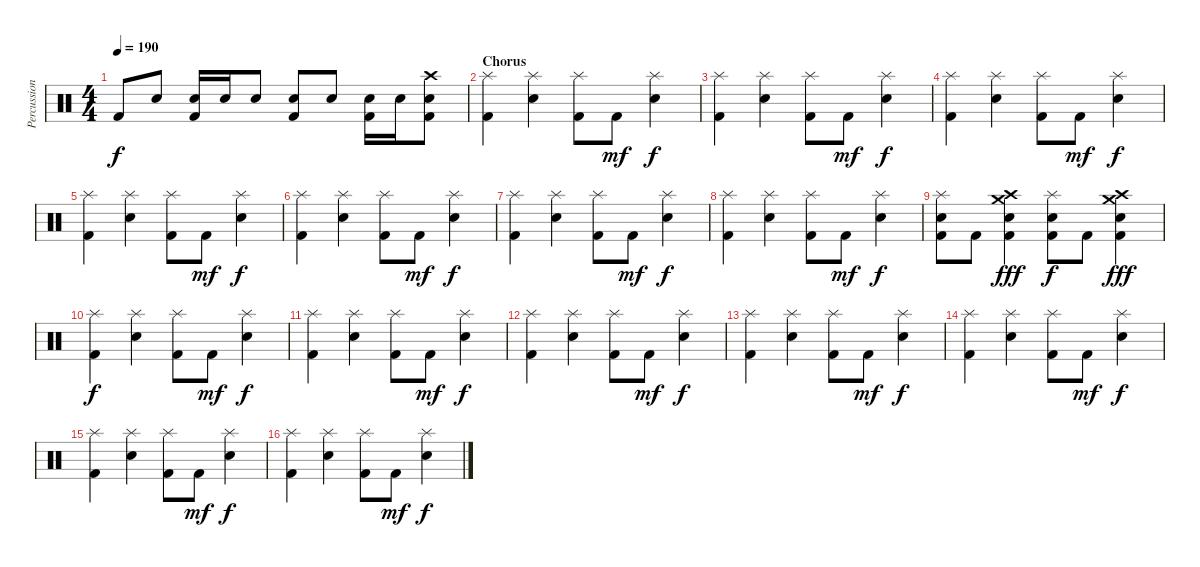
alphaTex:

\track ("Percussion" "Percussion") {instrument percussion}
\staff {score}
\articulation defaults
\ts (4 4)
\tempo 190
\clef neutral
\ks c "Kick (hit) 2".8{dy f} "Electric Snare (hit)".8
("Electric Snare (hit)" "Kick (hit) 2").16 "Electric Snare (hit)".16 "Electric Snare (hit)".8 ("Electric Snare (hit)" "Kick (hit) 2").8 "Electric Snare (hit)".8 ("Electric Snare (hit)" "Kick (hit) 2").16 "Electric Snare (hit)".16 ("Crash high (hit)" "Electric Snare (hit)" "Kick (hit) 2").8 |
\section ("" "Chorus")
("Splash (hit)" "Kick (hit) 2").4 ("Splash (hit)" "Electric Snare (hit)").4 ("Splash (hit)" "Kick (hit) 2").8 "Kick (hit) 2".8{dy mf} ("Splash (hit)" "Electric Snare (hit)").4{dy f} |
("Splash (hit)" "Kick (hit) 2").4 ("Splash (hit)" "Electric Snare (hit)").4 ("Splash (hit)" "Kick (hit) 2").8 "Kick (hit) 2".8{dy mf} ("Splash (hit)" "Electric Snare (hit)").4{dy f} |
("Splash (hit)" "Kick (hit) 2").4 ("Splash (hit)" "Electric Snare (hit)").4 ("Splash (hit)" "Kick (hit) 2").8 "Kick (hit) 2".8{dy mf} ("Splash (hit)" "Electric Snare (hit)").4{dy f} |
("Splash (hit)" "Kick (hit) 2").4 ("Splash (hit)" "Electric Snare (hit)").4 ("Splash (hit)" "Kick (hit) 2").8 "Kick (hit) 2".8{dy mf} ("Splash (hit)" "Electric Snare (hit)").4{dy f} |
("Splash (hit)" "Kick (hit) 2").4 ("Splash (hit)" "Electric Snare (hit)").4 ("Splash (hit)" "Kick (hit) 2").8 "Kick (hit) 2".8{dy mf} ("Splash (hit)" "Electric Snare (hit)").4{dy f} |
("Splash (hit)" "Kick (hit) 2").4 ("Splash (hit)" "Electric Snare (hit)").4 ("Splash (hit)" "Kick (hit) 2").8 "Kick (hit) 2".8{dy mf} ("Splash (hit)" "Electric Snare (hit)").4{dy f} |
("Splash (hit)" "Kick (hit) 2").4 ("Splash (hit)" "Electric Snare (hit)").4 ("Splash (hit)" "Kick (hit) 2").8 "Kick (hit) 2".8{dy mf} ("Splash (hit)" "Electric Snare (hit)").4{dy f} |
("Splash (hit)" "Electric Snare (hit)" "Kick (hit) 2").8 "Kick (hit) 2".8 ("Crash high (hit)" "Crash medium (hit)" "Electric Snare (hit)" "Kick (hit) 2").4{dy fff} ("Splash (hit)" "Electric Snare (hit)" "Kick (hit) 2").8{dy f} "Kick (hit) 2".8 ("Crash medium (hit)" "Crash high (hit)" "Electric Snare (hit)" "Kick (hit) 2").4{dy fff} |
("Splash (hit)" "Kick (hit) 2").4{dy f} ("Splash (hit)" "Electric Snare (hit)").4 ("Splash (hit)" "Kick (hit) 2").8 "Kick (hit) 2".8{dy mf} ("Splash (hit)" "Electric Snare (hit)").4{dy f} |
("Splash (hit)" "Kick (hit) 2").4 ("Splash (hit)" "Electric Snare (hit)").4 ("Splash (hit)" "Kick (hit) 2").8 "Kick (hit) 2".8{dy mf} ("Splash (hit)" "Electric Snare (hit)").4{dy f} |
("Splash (hit)" "Kick (hit) 2").4 ("Splash (hit)" "Electric Snare (hit)").4 ("Splash (hit)" "Kick (hit) 2").8 "Kick (hit) 2".8{dy mf} ("Splash (hit)" "Electric Snare (hit)").4{dy f} |
("Splash (hit)" "Kick (hit) 2").4 ("Splash (hit)" "Electric Snare (hit)").4 ("Splash (hit)" "Kick (hit) 2").8 "Kick (hit) 2".8{dy mf} ("Splash (hit)" "Electric Snare (hit)").4{dy f} |
("Splash (hit)" "Kick (hit) 2").4 ("Splash (hit)" "Electric Snare (hit)").4 ("Splash (hit)" "Kick (hit) 2").8 "Kick (hit) 2".8{dy mf} ("Splash (hit)" "Electric Snare (hit)").4{dy f} |
("Splash (hit)" "Kick (hit) 2").4 ("Splash (hit)" "Electric Snare (hit)").4 ("Splash (hit)" "Kick (hit) 2").8 "Kick (hit) 2".8{dy mf} ("Splash (hit)" "Electric Snare (hit)").4{dy f} |
("Splash (hit)" "Kick (hit) 2").4 ("Splash (hit)" "Electric Snare (hit)").4 ("Splash (hit)" "Kick (hit) 2").8 "Kick (hit) 2".8{dy mf} ("Splash (hit)" "Electric Snare (hit)").4{dy f}
